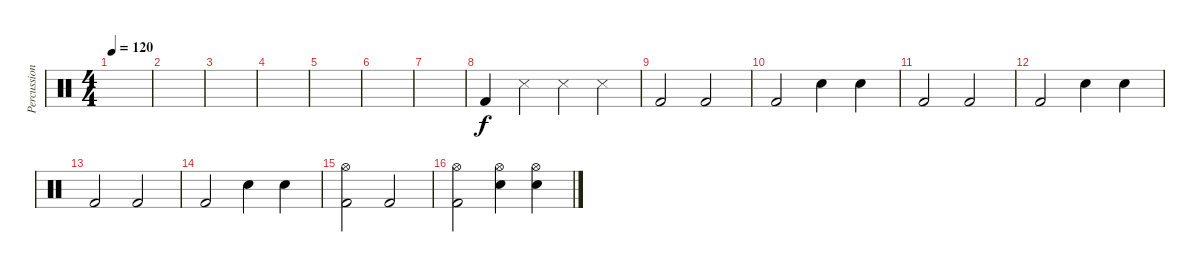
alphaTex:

\track ("Percussion" "Percussion") {instrument percussion}
\staff {score}
\articulation defaults
\ts (4 4)
\tempo 120
\clef neutral
\ks c
|
|
|
|
|
|
|
"Kick (hit) 2".4 "Snare (side stick) 3".4 "Snare (side stick) 3".4 "Snare (side stick) 3".4 |
"Kick (hit) 2".2 "Kick (hit) 2".2 |
"Kick (hit) 2".2 "Snare (hit) 2".4 "Snare (hit) 2".4 |
"Kick (hit) 2".2 "Kick (hit) 2".2 |
"Kick (hit) 2".2 "Snare (hit) 2".4 "Snare (hit) 2".4 |
"Kick (hit) 2".2 "Kick (hit) 2".2 |
"Kick (hit) 2".2 "Snare (hit) 2".4 "Snare (hit) 2".4 |
("Kick (hit) 2" "Hi-Hat (open)").2 "Kick (hit) 2".2 |
("Kick (hit) 2" "Hi-Hat (open)").2 ("Snare (hit) 2" "Hi-Hat (open)").4 ("Snare (hit) 2" "Hi-Hat (open)").4
